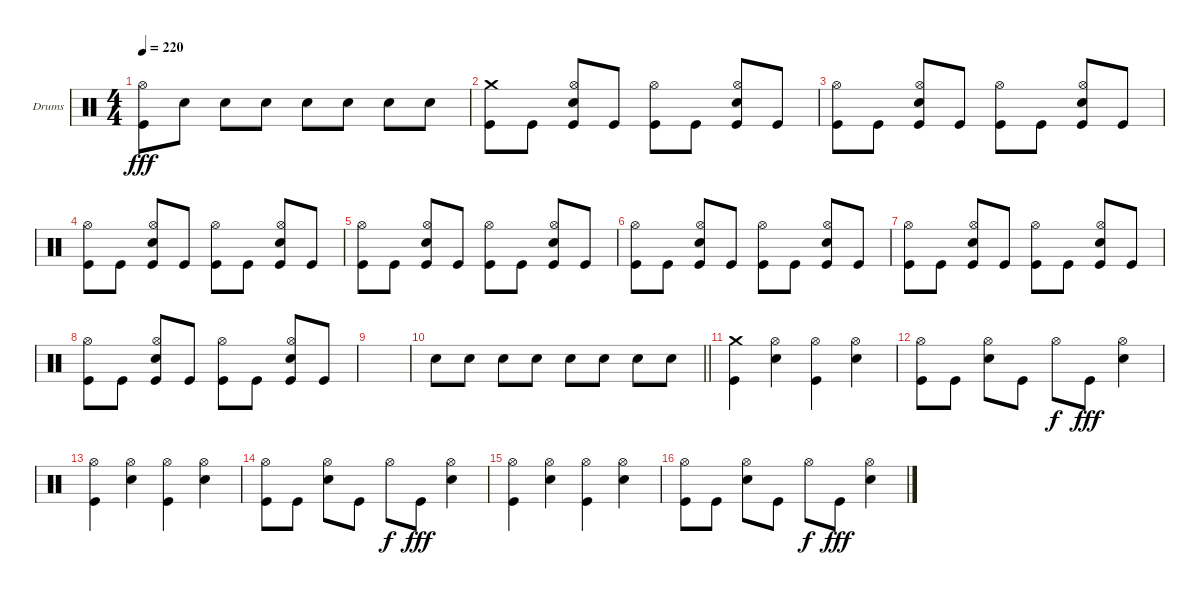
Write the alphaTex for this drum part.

\bracketExtendMode groupsimilarinstruments
\firstSystemTrackNameOrientation horizontal
\otherSystemsTrackNameOrientation horizontal
\track ("Stefan Schwarzmann" "Drums") {instrument percussion}
\staff {score}
\articulation defaults
\ts (4 4)
\tempo 220
\clef neutral
\ks c
("Kick (hit)" "Hi-Hat (open)").8{dy fff} "Snare (hit) 2".8 "Snare (hit) 2".8 "Snare (hit) 2".8 "Snare (hit) 2".8 "Snare (hit) 2".8 "Snare (hit) 2".8 "Snare (hit) 2".8 |
("Kick (hit)" "Crash medium (hit)").8 "Kick (hit)".8 ("Kick (hit)" "Snare (hit) 2" "Hi-Hat (open)").8 "Kick (hit)".8 ("Kick (hit)" "Hi-Hat (open)").8 "Kick (hit)".8 ("Kick (hit)" "Snare (hit) 2" "Hi-Hat (open)").8 "Kick (hit)".8 |
("Kick (hit)" "Hi-Hat (open)").8 "Kick (hit)".8 ("Kick (hit)" "Snare (hit) 2" "Hi-Hat (open)").8 "Kick (hit)".8 ("Kick (hit)" "Hi-Hat (open)").8 "Kick (hit)".8 ("Kick (hit)" "Snare (hit) 2" "Hi-Hat (open)").8 "Kick (hit)".8 |
("Kick (hit)" "Hi-Hat (open)").8 "Kick (hit)".8 ("Kick (hit)" "Snare (hit) 2" "Hi-Hat (open)").8 "Kick (hit)".8 ("Kick (hit)" "Hi-Hat (open)").8 "Kick (hit)".8 ("Kick (hit)" "Snare (hit) 2" "Hi-Hat (open)").8 "Kick (hit)".8 |
("Kick (hit)" "Hi-Hat (open)").8 "Kick (hit)".8 ("Kick (hit)" "Snare (hit) 2" "Hi-Hat (open)").8 "Kick (hit)".8 ("Kick (hit)" "Hi-Hat (open)").8 "Kick (hit)".8 ("Kick (hit)" "Snare (hit) 2" "Hi-Hat (open)").8 "Kick (hit)".8 |
("Kick (hit)" "Hi-Hat (open)").8 "Kick (hit)".8 ("Kick (hit)" "Snare (hit) 2" "Hi-Hat (open)").8 "Kick (hit)".8 ("Kick (hit)" "Hi-Hat (open)").8 "Kick (hit)".8 ("Kick (hit)" "Snare (hit) 2" "Hi-Hat (open)").8 "Kick (hit)".8 |
("Kick (hit)" "Hi-Hat (open)").8 "Kick (hit)".8 ("Kick (hit)" "Snare (hit) 2" "Hi-Hat (open)").8 "Kick (hit)".8 ("Kick (hit)" "Hi-Hat (open)").8 "Kick (hit)".8 ("Kick (hit)" "Snare (hit) 2" "Hi-Hat (open)").8 "Kick (hit)".8 |
("Kick (hit)" "Hi-Hat (open)").8 "Kick (hit)".8 ("Kick (hit)" "Snare (hit) 2" "Hi-Hat (open)").8 "Kick (hit)".8 ("Kick (hit)" "Hi-Hat (open)").8 "Kick (hit)".8 ("Kick (hit)" "Snare (hit) 2" "Hi-Hat (open)").8 "Kick (hit)".8 |
|
\barLineRight lightlight "Snare (hit) 2".8 "Snare (hit) 2".8 "Snare (hit) 2".8 "Snare (hit) 2".8 "Snare (hit) 2".8 "Snare (hit) 2".8 "Snare (hit) 2".8 "Snare (hit) 2".8
|
("Kick (hit)" "Crash medium (hit)").4 ("Snare (hit) 2" "Hi-Hat (open)").4 ("Kick (hit)" "Hi-Hat (open)").4 ("Snare (hit) 2" "Hi-Hat (open)").4 |
("Kick (hit)" "Hi-Hat (open)").8 "Kick (hit)".8 ("Snare (hit) 2" "Hi-Hat (open)").8 "Kick (hit)".8 "Hi-Hat (open)".8{dy f} "Kick (hit)".8{dy fff} ("Snare (hit) 2" "Hi-Hat (open)").4 |
("Kick (hit)" "Hi-Hat (open)").4 ("Snare (hit) 2" "Hi-Hat (open)").4 ("Kick (hit)" "Hi-Hat (open)").4 ("Snare (hit) 2" "Hi-Hat (open)").4 |
("Kick (hit)" "Hi-Hat (open)").8 "Kick (hit)".8 ("Snare (hit) 2" "Hi-Hat (open)").8 "Kick (hit)".8 "Hi-Hat (open)".8{dy f} "Kick (hit)".8{dy fff} ("Snare (hit) 2" "Hi-Hat (open)").4 |
("Kick (hit)" "Hi-Hat (open)").4 ("Snare (hit) 2" "Hi-Hat (open)").4 ("Kick (hit)" "Hi-Hat (open)").4 ("Snare (hit) 2" "Hi-Hat (open)").4 |
("Kick (hit)" "Hi-Hat (open)").8 "Kick (hit)".8 ("Snare (hit) 2" "Hi-Hat (open)").8 "Kick (hit)".8 "Hi-Hat (open)".8{dy f} "Kick (hit)".8{dy fff} ("Snare (hit) 2" "Hi-Hat (open)").4
